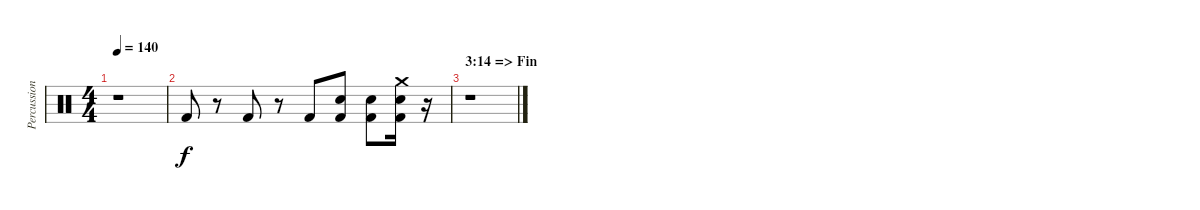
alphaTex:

\track ("Percussions" "Percussion") {instrument percussion}
\staff {score}
\articulation defaults
\ts (4 4)
\tempo 140
\clef neutral
\ks c
r.1{dy f} |
"Kick (hit) 2".8 r.8 "Kick (hit) 2".8 r.8 "Kick (hit) 2".8 ("Snare (hit) 2" "Kick (hit) 2").8 ("Snare (hit) 2" "Kick (hit) 2").8 ("Crash medium (hit)" "Snare (hit) 2" "Kick (hit) 2").16 r.16 |
\section ("" "3:14 => Fin")
r.1
